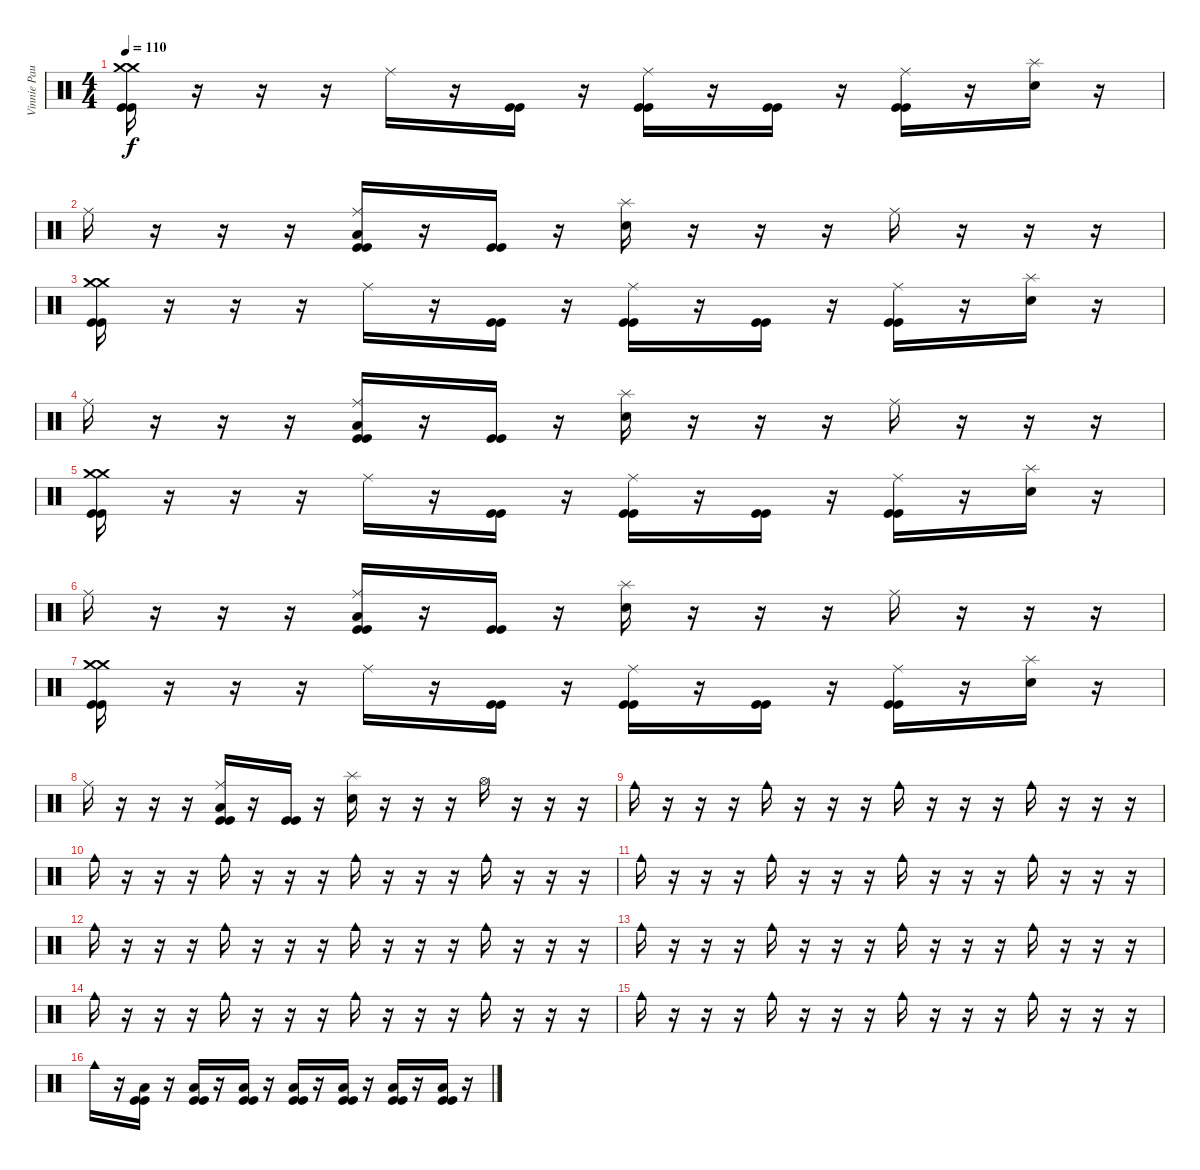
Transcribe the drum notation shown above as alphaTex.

\track ("Vinnie Paul " "Vinnie Pau") {instrument percussion}
\staff {score}
\articulation defaults
\ts (4 4)
\tempo 110
\clef neutral
\ks c
("Crash medium (hit)" "Crash medium (hit)" "Kick (hit)" "Kick (hit)").16{dy f} r.16 r.16 r.16 "Ride (middle)".16 r.16 ("Kick (hit)" "Kick (hit)").16 r.16 ("Ride (middle)" "Kick (hit)" "Kick (hit)").16 r.16 ("Kick (hit)" "Kick (hit)").16 r.16 ("Ride (middle)" "Kick (hit)" "Kick (hit)").16 r.16 ("Splash (hit)" "Snare (hit) 2").16 r.16 |
"Ride (middle)".16 r.16 r.16 r.16 ("Ride (middle)" "Low Tom (hit)" "Kick (hit)" "Kick (hit)").16 r.16 ("Kick (hit)" "Kick (hit)").16 r.16 ("Splash (hit)" "Snare (hit) 2").16 r.16 r.16 r.16 "Ride (middle)".16 r.16 r.16 r.16 |
("Crash medium (hit)" "Crash medium (hit)" "Kick (hit)" "Kick (hit)").16 r.16 r.16 r.16 "Ride (middle)".16 r.16 ("Kick (hit)" "Kick (hit)").16 r.16 ("Ride (middle)" "Kick (hit)" "Kick (hit)").16 r.16 ("Kick (hit)" "Kick (hit)").16 r.16 ("Ride (middle)" "Kick (hit)" "Kick (hit)").16 r.16 ("Splash (hit)" "Snare (hit) 2").16 r.16 |
"Ride (middle)".16 r.16 r.16 r.16 ("Ride (middle)" "Low Tom (hit)" "Kick (hit)" "Kick (hit)").16 r.16 ("Kick (hit)" "Kick (hit)").16 r.16 ("Splash (hit)" "Snare (hit) 2").16 r.16 r.16 r.16 "Ride (middle)".16 r.16 r.16 r.16 |
("Crash medium (hit)" "Crash medium (hit)" "Kick (hit)" "Kick (hit)").16 r.16 r.16 r.16 "Ride (middle)".16 r.16 ("Kick (hit)" "Kick (hit)").16 r.16 ("Ride (middle)" "Kick (hit)" "Kick (hit)").16 r.16 ("Kick (hit)" "Kick (hit)").16 r.16 ("Ride (middle)" "Kick (hit)" "Kick (hit)").16 r.16 ("Splash (hit)" "Snare (hit) 2").16 r.16 |
"Ride (middle)".16 r.16 r.16 r.16 ("Ride (middle)" "Low Tom (hit)" "Kick (hit)" "Kick (hit)").16 r.16 ("Kick (hit)" "Kick (hit)").16 r.16 ("Splash (hit)" "Snare (hit) 2").16 r.16 r.16 r.16 "Ride (middle)".16 r.16 r.16 r.16 |
("Crash medium (hit)" "Crash medium (hit)" "Kick (hit)" "Kick (hit)").16 r.16 r.16 r.16 "Ride (middle)".16 r.16 ("Kick (hit)" "Kick (hit)").16 r.16 ("Ride (middle)" "Kick (hit)" "Kick (hit)").16 r.16 ("Kick (hit)" "Kick (hit)").16 r.16 ("Ride (middle)" "Kick (hit)" "Kick (hit)").16 r.16 ("Splash (hit)" "Snare (hit) 2").16 r.16 |
"Ride (middle)".16 r.16 r.16 r.16 ("Ride (middle)" "Low Tom (hit)" "Kick (hit)" "Kick (hit)").16 r.16 ("Kick (hit)" "Kick (hit)").16 r.16 ("Splash (hit)" "Snare (hit) 2").16 r.16 r.16 r.16 "Hi-Hat (open)".16 r.16 r.16 r.16 |
"Cowbell medium (hit)".16 r.16 r.16 r.16 "Cowbell medium (hit)".16 r.16 r.16 r.16 "Cowbell medium (hit)".16 r.16 r.16 r.16 "Cowbell medium (hit)".16 r.16 r.16 r.16 |
"Cowbell medium (hit)".16 r.16 r.16 r.16 "Cowbell medium (hit)".16 r.16 r.16 r.16 "Cowbell medium (hit)".16 r.16 r.16 r.16 "Cowbell medium (hit)".16 r.16 r.16 r.16 |
"Cowbell medium (hit)".16 r.16 r.16 r.16 "Cowbell medium (hit)".16 r.16 r.16 r.16 "Cowbell medium (hit)".16 r.16 r.16 r.16 "Cowbell medium (hit)".16 r.16 r.16 r.16 |
"Cowbell medium (hit)".16 r.16 r.16 r.16 "Cowbell medium (hit)".16 r.16 r.16 r.16 "Cowbell medium (hit)".16 r.16 r.16 r.16 "Cowbell medium (hit)".16 r.16 r.16 r.16 |
"Cowbell medium (hit)".16 r.16 r.16 r.16 "Cowbell medium (hit)".16 r.16 r.16 r.16 "Cowbell medium (hit)".16 r.16 r.16 r.16 "Cowbell medium (hit)".16 r.16 r.16 r.16 |
"Cowbell medium (hit)".16 r.16 r.16 r.16 "Cowbell medium (hit)".16 r.16 r.16 r.16 "Cowbell medium (hit)".16 r.16 r.16 r.16 "Cowbell medium (hit)".16 r.16 r.16 r.16 |
"Cowbell medium (hit)".16 r.16 r.16 r.16 "Cowbell medium (hit)".16 r.16 r.16 r.16 "Cowbell medium (hit)".16 r.16 r.16 r.16 "Cowbell medium (hit)".16 r.16 r.16 r.16 |
"Cowbell medium (hit)".16 r.16 ("Low Tom (hit)" "Kick (hit)" "Kick (hit)").16 r.16 ("Low Tom (hit)" "Kick (hit)" "Kick (hit)").16 r.16 ("Low Tom (hit)" "Kick (hit)" "Kick (hit)").16 r.16 ("Low Tom (hit)" "Kick (hit)" "Kick (hit)").16 r.16 ("Low Tom (hit)" "Kick (hit)" "Kick (hit)").16 r.16 ("Low Tom (hit)" "Kick (hit)" "Kick (hit)").16 r.16 ("Low Tom (hit)" "Kick (hit)" "Kick (hit)").16 r.16
